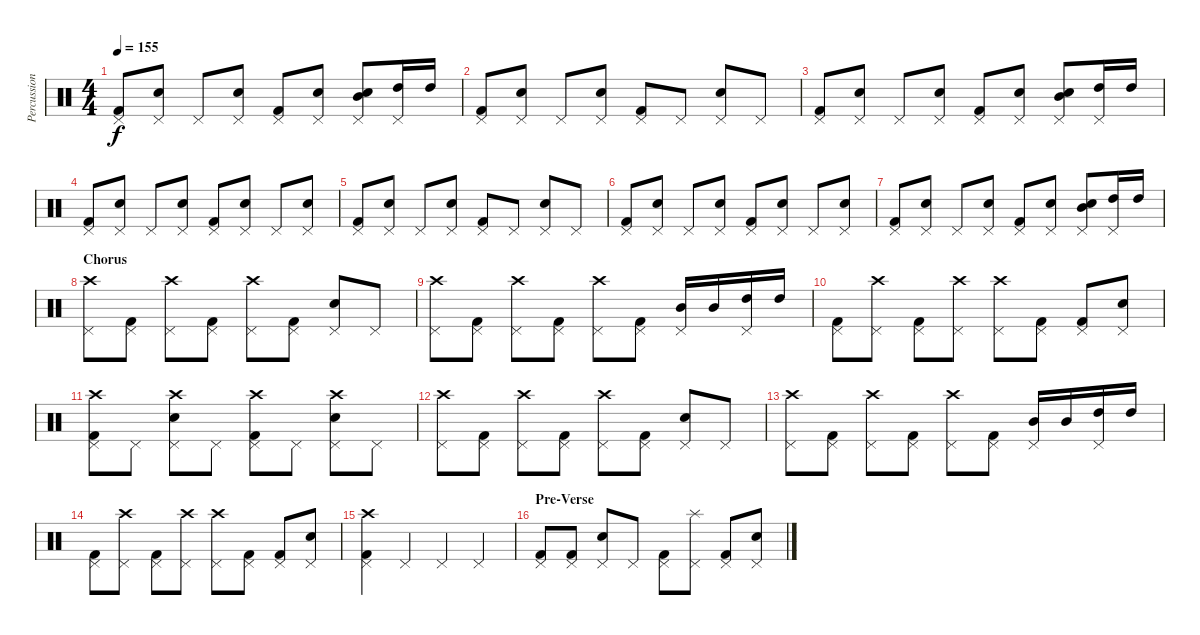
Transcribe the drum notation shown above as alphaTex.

\track ("Percussion" "Percussion") {instrument percussion}
\staff {score}
\articulation defaults
\ts (4 4)
\tempo 155
\clef neutral
\ks c
("Pedal Hi-Hat (hit)" "Kick (hit) 2").8{dy f} ("Pedal Hi-Hat (hit)" "Electric Snare (hit)").8 "Pedal Hi-Hat (hit)".8 ("Pedal Hi-Hat (hit)" "Electric Snare (hit)").8 ("Pedal Hi-Hat (hit)" "Kick (hit) 2").8 ("Pedal Hi-Hat (hit)" "Electric Snare (hit)").8 ("Pedal Hi-Hat (hit)" "Electric Snare (hit)" "Mid Tom (hit)").8 ("Pedal Hi-Hat (hit)" "High Tom (hit)").16 "High Tom (hit)".16 |
("Pedal Hi-Hat (hit)" "Kick (hit) 2").8 ("Pedal Hi-Hat (hit)" "Electric Snare (hit)").8 "Pedal Hi-Hat (hit)".8 ("Pedal Hi-Hat (hit)" "Electric Snare (hit)").8 ("Pedal Hi-Hat (hit)" "Kick (hit) 2").8 "Pedal Hi-Hat (hit)".8 ("Pedal Hi-Hat (hit)" "Electric Snare (hit)").8 "Pedal Hi-Hat (hit)".8 |
("Pedal Hi-Hat (hit)" "Kick (hit) 2").8 ("Pedal Hi-Hat (hit)" "Electric Snare (hit)").8 "Pedal Hi-Hat (hit)".8 ("Pedal Hi-Hat (hit)" "Electric Snare (hit)").8 ("Pedal Hi-Hat (hit)" "Kick (hit) 2").8 ("Pedal Hi-Hat (hit)" "Electric Snare (hit)").8 ("Pedal Hi-Hat (hit)" "Electric Snare (hit)" "Mid Tom (hit)").8 ("Pedal Hi-Hat (hit)" "High Tom (hit)").16 "High Tom (hit)".16 |
("Pedal Hi-Hat (hit)" "Kick (hit) 2").8 ("Pedal Hi-Hat (hit)" "Electric Snare (hit)").8 "Pedal Hi-Hat (hit)".8 ("Pedal Hi-Hat (hit)" "Electric Snare (hit)").8 ("Pedal Hi-Hat (hit)" "Kick (hit) 2").8 ("Pedal Hi-Hat (hit)" "Electric Snare (hit)").8 "Pedal Hi-Hat (hit)".8 ("Pedal Hi-Hat (hit)" "Electric Snare (hit)").8 |
("Pedal Hi-Hat (hit)" "Kick (hit) 2").8 ("Pedal Hi-Hat (hit)" "Electric Snare (hit)").8 "Pedal Hi-Hat (hit)".8 ("Pedal Hi-Hat (hit)" "Electric Snare (hit)").8 ("Pedal Hi-Hat (hit)" "Kick (hit) 2").8 "Pedal Hi-Hat (hit)".8 ("Pedal Hi-Hat (hit)" "Electric Snare (hit)").8 "Pedal Hi-Hat (hit)".8 |
("Pedal Hi-Hat (hit)" "Kick (hit) 2").8 ("Pedal Hi-Hat (hit)" "Electric Snare (hit)").8 "Pedal Hi-Hat (hit)".8 ("Pedal Hi-Hat (hit)" "Electric Snare (hit)").8 ("Pedal Hi-Hat (hit)" "Kick (hit) 2").8 ("Pedal Hi-Hat (hit)" "Electric Snare (hit)").8 "Pedal Hi-Hat (hit)".8 ("Pedal Hi-Hat (hit)" "Electric Snare (hit)").8 |
("Pedal Hi-Hat (hit)" "Kick (hit) 2").8 ("Pedal Hi-Hat (hit)" "Electric Snare (hit)").8 "Pedal Hi-Hat (hit)".8 ("Pedal Hi-Hat (hit)" "Electric Snare (hit)").8 ("Pedal Hi-Hat (hit)" "Kick (hit) 2").8 ("Pedal Hi-Hat (hit)" "Electric Snare (hit)").8 ("Pedal Hi-Hat (hit)" "Electric Snare (hit)" "Mid Tom (hit)").8 ("Pedal Hi-Hat (hit)" "High Tom (hit)").16 "High Tom (hit)".16 |
\section ("" "Chorus")
("Pedal Hi-Hat (hit)" "Crash high (hit)").8 ("Pedal Hi-Hat (hit)" "Kick (hit) 2").8 ("Pedal Hi-Hat (hit)" "Crash high (hit)").8 ("Pedal Hi-Hat (hit)" "Kick (hit) 2").8 ("Pedal Hi-Hat (hit)" "Crash high (hit)").8 ("Pedal Hi-Hat (hit)" "Kick (hit) 2").8 ("Pedal Hi-Hat (hit)" "Electric Snare (hit)").8 "Pedal Hi-Hat (hit)".8 |
("Pedal Hi-Hat (hit)" "Crash high (hit)").8 ("Pedal Hi-Hat (hit)" "Kick (hit) 2").8 ("Pedal Hi-Hat (hit)" "Crash high (hit)").8 ("Pedal Hi-Hat (hit)" "Kick (hit) 2").8 ("Pedal Hi-Hat (hit)" "Crash high (hit)").8 ("Pedal Hi-Hat (hit)" "Kick (hit) 2").8 ("Pedal Hi-Hat (hit)" "Mid Tom (hit)").16 "Mid Tom (hit)".16 ("Pedal Hi-Hat (hit)" "High Tom (hit)").16 "High Tom (hit)".16 |
("Pedal Hi-Hat (hit)" "Kick (hit) 2").8 ("Pedal Hi-Hat (hit)" "Crash high (hit)").8 ("Pedal Hi-Hat (hit)" "Kick (hit) 2").8 ("Pedal Hi-Hat (hit)" "Crash high (hit)").8 ("Pedal Hi-Hat (hit)" "Crash high (hit)").8 ("Pedal Hi-Hat (hit)" "Kick (hit) 2").8 ("Pedal Hi-Hat (hit)" "Kick (hit) 2").8 ("Pedal Hi-Hat (hit)" "Electric Snare (hit)").8 |
("Pedal Hi-Hat (hit)" "Kick (hit) 2" "Crash high (hit)").8 "Pedal Hi-Hat (hit)".8 ("Pedal Hi-Hat (hit)" "Electric Snare (hit)" "Crash high (hit)").8 "Pedal Hi-Hat (hit)".8 ("Pedal Hi-Hat (hit)" "Kick (hit) 2" "Crash high (hit)").8 "Pedal Hi-Hat (hit)".8 ("Pedal Hi-Hat (hit)" "Electric Snare (hit)" "Crash high (hit)").8 "Pedal Hi-Hat (hit)".8 |
("Pedal Hi-Hat (hit)" "Crash high (hit)").8 ("Pedal Hi-Hat (hit)" "Kick (hit) 2").8 ("Pedal Hi-Hat (hit)" "Crash high (hit)").8 ("Pedal Hi-Hat (hit)" "Kick (hit) 2").8 ("Pedal Hi-Hat (hit)" "Crash high (hit)").8 ("Pedal Hi-Hat (hit)" "Kick (hit) 2").8 ("Pedal Hi-Hat (hit)" "Electric Snare (hit)").8 "Pedal Hi-Hat (hit)".8 |
("Pedal Hi-Hat (hit)" "Crash high (hit)").8 ("Pedal Hi-Hat (hit)" "Kick (hit) 2").8 ("Pedal Hi-Hat (hit)" "Crash high (hit)").8 ("Pedal Hi-Hat (hit)" "Kick (hit) 2").8 ("Pedal Hi-Hat (hit)" "Crash high (hit)").8 ("Pedal Hi-Hat (hit)" "Kick (hit) 2").8 ("Pedal Hi-Hat (hit)" "Mid Tom (hit)").16 "Mid Tom (hit)".16 ("Pedal Hi-Hat (hit)" "High Tom (hit)").16 "High Tom (hit)".16 |
("Pedal Hi-Hat (hit)" "Kick (hit) 2").8 ("Pedal Hi-Hat (hit)" "Crash high (hit)").8 ("Pedal Hi-Hat (hit)" "Kick (hit) 2").8 ("Pedal Hi-Hat (hit)" "Crash high (hit)").8 ("Pedal Hi-Hat (hit)" "Crash high (hit)").8 ("Pedal Hi-Hat (hit)" "Kick (hit) 2").8 ("Pedal Hi-Hat (hit)" "Kick (hit) 2").8 ("Pedal Hi-Hat (hit)" "Electric Snare (hit)").8 |
("Pedal Hi-Hat (hit)" "Kick (hit) 2" "Crash high (hit)").4 "Pedal Hi-Hat (hit)".4 "Pedal Hi-Hat (hit)".4 "Pedal Hi-Hat (hit)".4 |
\section ("" "Pre-Verse")
("Pedal Hi-Hat (hit)" "Kick (hit) 2").8 ("Pedal Hi-Hat (hit)" "Kick (hit) 2").8 ("Pedal Hi-Hat (hit)" "Electric Snare (hit)").8 "Pedal Hi-Hat (hit)".8 ("Pedal Hi-Hat (hit)" "Kick (hit) 2").8 ("Pedal Hi-Hat (hit)" "Splash (hit)").8 ("Pedal Hi-Hat (hit)" "Kick (hit) 2").8 ("Pedal Hi-Hat (hit)" "Electric Snare (hit)").8
